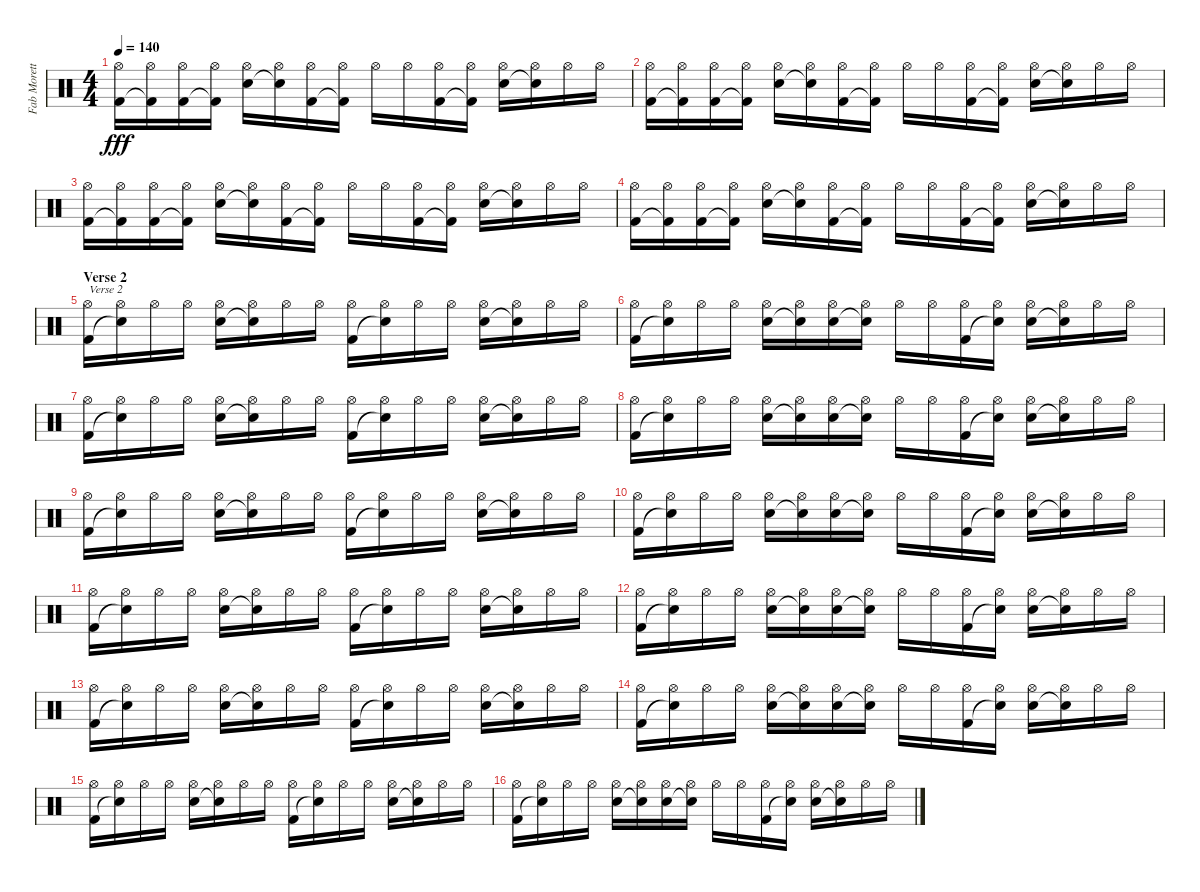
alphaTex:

\track ("Fab Moretti" "Fab Morett") {instrument percussion}
\staff {score}
\articulation defaults
\ts (4 4)
\tempo 140
\clef neutral
\ks c
("Hi-Hat (open)" "Kick (hit) 2").16{dy fff} ("Hi-Hat (open)" "Kick (hit) 2"{t}).16 ("Hi-Hat (open)" "Kick (hit) 2").16 ("Hi-Hat (open)" "Kick (hit) 2"{t}).16 ("Hi-Hat (open)" "Snare (hit) 2").16 ("Hi-Hat (open)" "Snare (hit) 2"{t}).16 ("Hi-Hat (open)" "Kick (hit) 2").16 ("Hi-Hat (open)" "Kick (hit) 2"{t}).16 "Hi-Hat (open)".16 "Hi-Hat (open)".16 ("Hi-Hat (open)" "Kick (hit) 2").16 ("Hi-Hat (open)" "Kick (hit) 2"{t}).16 ("Hi-Hat (open)" "Snare (hit) 2").16 ("Hi-Hat (open)" "Snare (hit) 2"{t}).16 "Hi-Hat (open)".16 "Hi-Hat (open)".16 |
("Hi-Hat (open)" "Kick (hit) 2").16 ("Hi-Hat (open)" "Kick (hit) 2"{t}).16 ("Hi-Hat (open)" "Kick (hit) 2").16 ("Hi-Hat (open)" "Kick (hit) 2"{t}).16 ("Hi-Hat (open)" "Snare (hit) 2").16 ("Hi-Hat (open)" "Snare (hit) 2"{t}).16 ("Hi-Hat (open)" "Kick (hit) 2").16 ("Hi-Hat (open)" "Kick (hit) 2"{t}).16 "Hi-Hat (open)".16 "Hi-Hat (open)".16 ("Hi-Hat (open)" "Kick (hit) 2").16 ("Hi-Hat (open)" "Kick (hit) 2"{t}).16 ("Hi-Hat (open)" "Snare (hit) 2").16 ("Hi-Hat (open)" "Snare (hit) 2"{t}).16 "Hi-Hat (open)".16 "Hi-Hat (open)".16 |
("Hi-Hat (open)" "Kick (hit) 2").16 ("Hi-Hat (open)" "Kick (hit) 2"{t}).16 ("Hi-Hat (open)" "Kick (hit) 2").16 ("Hi-Hat (open)" "Kick (hit) 2"{t}).16 ("Hi-Hat (open)" "Snare (hit) 2").16 ("Hi-Hat (open)" "Snare (hit) 2"{t}).16 ("Hi-Hat (open)" "Kick (hit) 2").16 ("Hi-Hat (open)" "Kick (hit) 2"{t}).16 "Hi-Hat (open)".16 "Hi-Hat (open)".16 ("Hi-Hat (open)" "Kick (hit) 2").16 ("Hi-Hat (open)" "Kick (hit) 2"{t}).16 ("Hi-Hat (open)" "Snare (hit) 2").16 ("Hi-Hat (open)" "Snare (hit) 2"{t}).16 "Hi-Hat (open)".16 "Hi-Hat (open)".16 |
("Hi-Hat (open)" "Kick (hit) 2").16 ("Hi-Hat (open)" "Kick (hit) 2"{t}).16 ("Hi-Hat (open)" "Kick (hit) 2").16 ("Hi-Hat (open)" "Kick (hit) 2"{t}).16 ("Hi-Hat (open)" "Snare (hit) 2").16 ("Hi-Hat (open)" "Snare (hit) 2"{t}).16 ("Hi-Hat (open)" "Kick (hit) 2").16 ("Hi-Hat (open)" "Kick (hit) 2"{t}).16 "Hi-Hat (open)".16 "Hi-Hat (open)".16 ("Hi-Hat (open)" "Kick (hit) 2").16 ("Hi-Hat (open)" "Kick (hit) 2"{t}).16 ("Hi-Hat (open)" "Snare (hit) 2").16 ("Hi-Hat (open)" "Snare (hit) 2"{t}).16 "Hi-Hat (open)".16 "Hi-Hat (open)".16 |
\section ("" "Verse 2")
("Hi-Hat (open)" "Kick (hit) 2").16{txt "Verse 2"} ("Hi-Hat (open)" "Snare (hit) 2"{t}).16 "Hi-Hat (open)".16 "Hi-Hat (open)".16 ("Hi-Hat (open)" "Snare (hit) 2").16 ("Hi-Hat (open)" "Snare (hit)"{t}).16 "Hi-Hat (open)".16 "Hi-Hat (open)".16 ("Hi-Hat (open)" "Kick (hit) 2").16 ("Hi-Hat (open)" "Snare (hit)"{t}).16 "Hi-Hat (open)".16 "Hi-Hat (open)".16 ("Hi-Hat (open)" "Snare (hit) 2").16 ("Hi-Hat (open)" "Snare (hit)"{t}).16 "Hi-Hat (open)".16 "Hi-Hat (open)".16 |
("Hi-Hat (open)" "Kick (hit) 2").16 ("Hi-Hat (open)" "Snare (hit) 2"{t}).16 "Hi-Hat (open)".16 "Hi-Hat (open)".16 ("Hi-Hat (open)" "Snare (hit) 2").16 ("Hi-Hat (open)" "Snare (hit)"{t}).16 ("Hi-Hat (open)" "Snare (hit) 2").16 ("Hi-Hat (open)" "Snare (hit)"{t}).16 "Hi-Hat (open)".16 "Hi-Hat (open)".16 ("Hi-Hat (open)" "Kick (hit) 2").16 ("Hi-Hat (open)" "Snare (hit)"{t}).16 ("Hi-Hat (open)" "Snare (hit) 2").16 ("Hi-Hat (open)" "Snare (hit)"{t}).16 "Hi-Hat (open)".16 "Hi-Hat (open)".16 |
("Hi-Hat (open)" "Kick (hit) 2").16 ("Hi-Hat (open)" "Snare (hit) 2"{t}).16 "Hi-Hat (open)".16 "Hi-Hat (open)".16 ("Hi-Hat (open)" "Snare (hit) 2").16 ("Hi-Hat (open)" "Snare (hit)"{t}).16 "Hi-Hat (open)".16 "Hi-Hat (open)".16 ("Hi-Hat (open)" "Kick (hit) 2").16 ("Hi-Hat (open)" "Snare (hit)"{t}).16 "Hi-Hat (open)".16 "Hi-Hat (open)".16 ("Hi-Hat (open)" "Snare (hit) 2").16 ("Hi-Hat (open)" "Snare (hit)"{t}).16 "Hi-Hat (open)".16 "Hi-Hat (open)".16 |
("Hi-Hat (open)" "Kick (hit) 2").16 ("Hi-Hat (open)" "Snare (hit) 2"{t}).16 "Hi-Hat (open)".16 "Hi-Hat (open)".16 ("Hi-Hat (open)" "Snare (hit) 2").16 ("Hi-Hat (open)" "Snare (hit)"{t}).16 ("Hi-Hat (open)" "Snare (hit) 2").16 ("Hi-Hat (open)" "Snare (hit)"{t}).16 "Hi-Hat (open)".16 "Hi-Hat (open)".16 ("Hi-Hat (open)" "Kick (hit) 2").16 ("Hi-Hat (open)" "Snare (hit)"{t}).16 ("Hi-Hat (open)" "Snare (hit) 2").16 ("Hi-Hat (open)" "Snare (hit)"{t}).16 "Hi-Hat (open)".16 "Hi-Hat (open)".16 |
("Hi-Hat (open)" "Kick (hit) 2").16 ("Hi-Hat (open)" "Snare (hit) 2"{t}).16 "Hi-Hat (open)".16 "Hi-Hat (open)".16 ("Hi-Hat (open)" "Snare (hit) 2").16 ("Hi-Hat (open)" "Snare (hit)"{t}).16 "Hi-Hat (open)".16 "Hi-Hat (open)".16 ("Hi-Hat (open)" "Kick (hit) 2").16 ("Hi-Hat (open)" "Snare (hit)"{t}).16 "Hi-Hat (open)".16 "Hi-Hat (open)".16 ("Hi-Hat (open)" "Snare (hit) 2").16 ("Hi-Hat (open)" "Snare (hit)"{t}).16 "Hi-Hat (open)".16 "Hi-Hat (open)".16 |
("Hi-Hat (open)" "Kick (hit) 2").16 ("Hi-Hat (open)" "Snare (hit) 2"{t}).16 "Hi-Hat (open)".16 "Hi-Hat (open)".16 ("Hi-Hat (open)" "Snare (hit) 2").16 ("Hi-Hat (open)" "Snare (hit)"{t}).16 ("Hi-Hat (open)" "Snare (hit) 2").16 ("Hi-Hat (open)" "Snare (hit)"{t}).16 "Hi-Hat (open)".16 "Hi-Hat (open)".16 ("Hi-Hat (open)" "Kick (hit) 2").16 ("Hi-Hat (open)" "Snare (hit)"{t}).16 ("Hi-Hat (open)" "Snare (hit) 2").16 ("Hi-Hat (open)" "Snare (hit)"{t}).16 "Hi-Hat (open)".16 "Hi-Hat (open)".16 |
("Hi-Hat (open)" "Kick (hit) 2").16 ("Hi-Hat (open)" "Snare (hit) 2"{t}).16 "Hi-Hat (open)".16 "Hi-Hat (open)".16 ("Hi-Hat (open)" "Snare (hit) 2").16 ("Hi-Hat (open)" "Snare (hit)"{t}).16 "Hi-Hat (open)".16 "Hi-Hat (open)".16 ("Hi-Hat (open)" "Kick (hit) 2").16 ("Hi-Hat (open)" "Snare (hit)"{t}).16 "Hi-Hat (open)".16 "Hi-Hat (open)".16 ("Hi-Hat (open)" "Snare (hit) 2").16 ("Hi-Hat (open)" "Snare (hit)"{t}).16 "Hi-Hat (open)".16 "Hi-Hat (open)".16 |
("Hi-Hat (open)" "Kick (hit) 2").16 ("Hi-Hat (open)" "Snare (hit) 2"{t}).16 "Hi-Hat (open)".16 "Hi-Hat (open)".16 ("Hi-Hat (open)" "Snare (hit) 2").16 ("Hi-Hat (open)" "Snare (hit)"{t}).16 ("Hi-Hat (open)" "Snare (hit) 2").16 ("Hi-Hat (open)" "Snare (hit)"{t}).16 "Hi-Hat (open)".16 "Hi-Hat (open)".16 ("Hi-Hat (open)" "Kick (hit) 2").16 ("Hi-Hat (open)" "Snare (hit)"{t}).16 ("Hi-Hat (open)" "Snare (hit) 2").16 ("Hi-Hat (open)" "Snare (hit)"{t}).16 "Hi-Hat (open)".16 "Hi-Hat (open)".16 |
("Hi-Hat (open)" "Kick (hit) 2").16 ("Hi-Hat (open)" "Snare (hit) 2"{t}).16 "Hi-Hat (open)".16 "Hi-Hat (open)".16 ("Hi-Hat (open)" "Snare (hit) 2").16 ("Hi-Hat (open)" "Snare (hit)"{t}).16 "Hi-Hat (open)".16 "Hi-Hat (open)".16 ("Hi-Hat (open)" "Kick (hit) 2").16 ("Hi-Hat (open)" "Snare (hit)"{t}).16 "Hi-Hat (open)".16 "Hi-Hat (open)".16 ("Hi-Hat (open)" "Snare (hit) 2").16 ("Hi-Hat (open)" "Snare (hit)"{t}).16 "Hi-Hat (open)".16 "Hi-Hat (open)".16 |
("Hi-Hat (open)" "Kick (hit) 2").16 ("Hi-Hat (open)" "Snare (hit) 2"{t}).16 "Hi-Hat (open)".16 "Hi-Hat (open)".16 ("Hi-Hat (open)" "Snare (hit) 2").16 ("Hi-Hat (open)" "Snare (hit)"{t}).16 ("Hi-Hat (open)" "Snare (hit) 2").16 ("Hi-Hat (open)" "Snare (hit)"{t}).16 "Hi-Hat (open)".16 "Hi-Hat (open)".16 ("Hi-Hat (open)" "Kick (hit) 2").16 ("Hi-Hat (open)" "Snare (hit)"{t}).16 ("Hi-Hat (open)" "Snare (hit) 2").16 ("Hi-Hat (open)" "Snare (hit)"{t}).16 "Hi-Hat (open)".16 "Hi-Hat (open)".16 |
("Hi-Hat (open)" "Kick (hit) 2").16 ("Hi-Hat (open)" "Snare (hit) 2"{t}).16 "Hi-Hat (open)".16 "Hi-Hat (open)".16 ("Hi-Hat (open)" "Snare (hit) 2").16 ("Hi-Hat (open)" "Snare (hit)"{t}).16 "Hi-Hat (open)".16 "Hi-Hat (open)".16 ("Hi-Hat (open)" "Kick (hit) 2").16 ("Hi-Hat (open)" "Snare (hit)"{t}).16 "Hi-Hat (open)".16 "Hi-Hat (open)".16 ("Hi-Hat (open)" "Snare (hit) 2").16 ("Hi-Hat (open)" "Snare (hit)"{t}).16 "Hi-Hat (open)".16 "Hi-Hat (open)".16 |
("Hi-Hat (open)" "Kick (hit) 2").16 ("Hi-Hat (open)" "Snare (hit) 2"{t}).16 "Hi-Hat (open)".16 "Hi-Hat (open)".16 ("Hi-Hat (open)" "Snare (hit) 2").16 ("Hi-Hat (open)" "Snare (hit)"{t}).16 ("Hi-Hat (open)" "Snare (hit) 2").16 ("Hi-Hat (open)" "Snare (hit)"{t}).16 "Hi-Hat (open)".16 "Hi-Hat (open)".16 ("Hi-Hat (open)" "Kick (hit) 2").16 ("Hi-Hat (open)" "Snare (hit)"{t}).16 ("Hi-Hat (open)" "Snare (hit) 2").16 ("Hi-Hat (open)" "Snare (hit)"{t}).16 "Hi-Hat (open)".16 "Hi-Hat (open)".16
